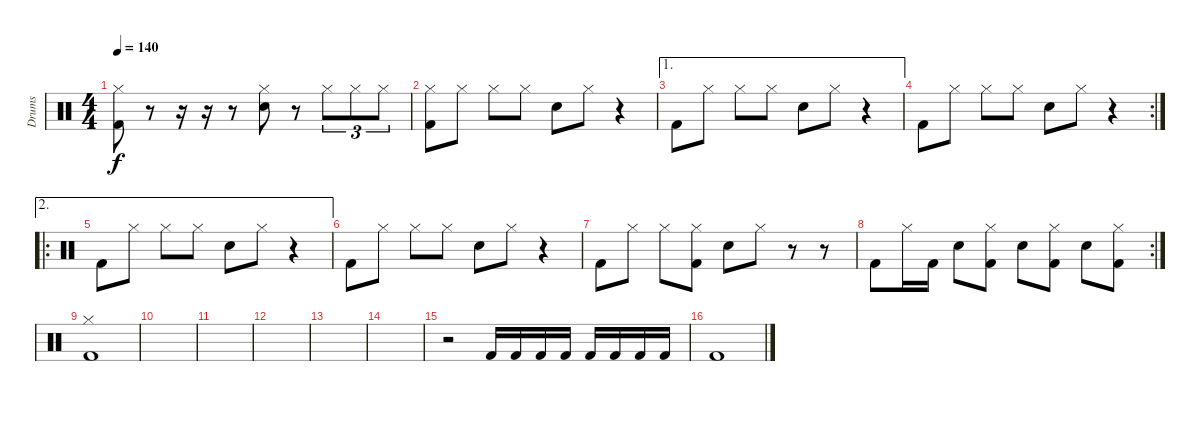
\track ("Drums" "Drums") {instrument percussion}
\staff {score}
\articulation defaults
\ts (4 4)
\tempo 140
\clef neutral
\ks c
("Hi-Hat (closed)" "Kick (hit) 2").8{dy f} r.8 r.16 r.16 r.8 ("Hi-Hat (closed)" "Snare (hit) 2").8 r.8 "Hi-Hat (closed)".8{tu (3 2)} "Hi-Hat (closed)".8{tu (3 2)} "Hi-Hat (closed)".8{tu (3 2)} |
("Hi-Hat (closed)" "Kick (hit) 2").8 "Hi-Hat (closed)".8 "Hi-Hat (closed)".8 "Hi-Hat (closed)".8 "Snare (hit) 2".8 "Hi-Hat (closed)".8 r.4 |
\ae 1 "Kick (hit) 2".8 "Hi-Hat (closed)".8 "Hi-Hat (closed)".8 "Hi-Hat (closed)".8 "Snare (hit) 2".8 "Hi-Hat (closed)".8
r.4 |
\rc 2 "Kick (hit) 2".8 "Hi-Hat (closed)".8 "Hi-Hat (closed)".8 "Hi-Hat (closed)".8 "Snare (hit) 2".8 "Hi-Hat (closed)".8
r.4 |
\ae 2
\ro "Kick (hit) 2".8 "Hi-Hat (closed)".8 "Hi-Hat (closed)".8 "Hi-Hat (closed)".8 "Snare (hit) 2".8 "Hi-Hat (closed)".8
r.4 |
"Kick (hit) 2".8 "Hi-Hat (closed)".8 "Hi-Hat (closed)".8 "Hi-Hat (closed)".8 "Snare (hit) 2".8 "Hi-Hat (closed)".8 r.4 |
"Kick (hit) 2".8 "Hi-Hat (closed)".8 "Hi-Hat (closed)".8 ("Hi-Hat (closed)" "Kick (hit) 2").8 "Snare (hit) 2".8 "Hi-Hat (closed)".8 r.8 r.8 |
\rc 2 "Kick (hit) 2".8 "Hi-Hat (closed)".16 "Kick (hit) 2".16 "Snare (hit) 2".8
("Hi-Hat (closed)" "Kick (hit) 2").8 "Snare (hit) 2".8 ("Hi-Hat (closed)" "Kick (hit) 2").8 "Snare (hit) 2".8 ("Hi-Hat (closed)" "Kick (hit) 2").8 |
("Hi-Hat (closed)" "Kick (hit) 2").1 |
|
|
|
|
|
r.2 "Kick (hit) 2".16 "Kick (hit) 2".16 "Kick (hit) 2".16 "Kick (hit) 2".16 "Kick (hit) 2".16 "Kick (hit) 2".16 "Kick (hit) 2".16 "Kick (hit) 2".16 |
"Kick (hit) 2".1
